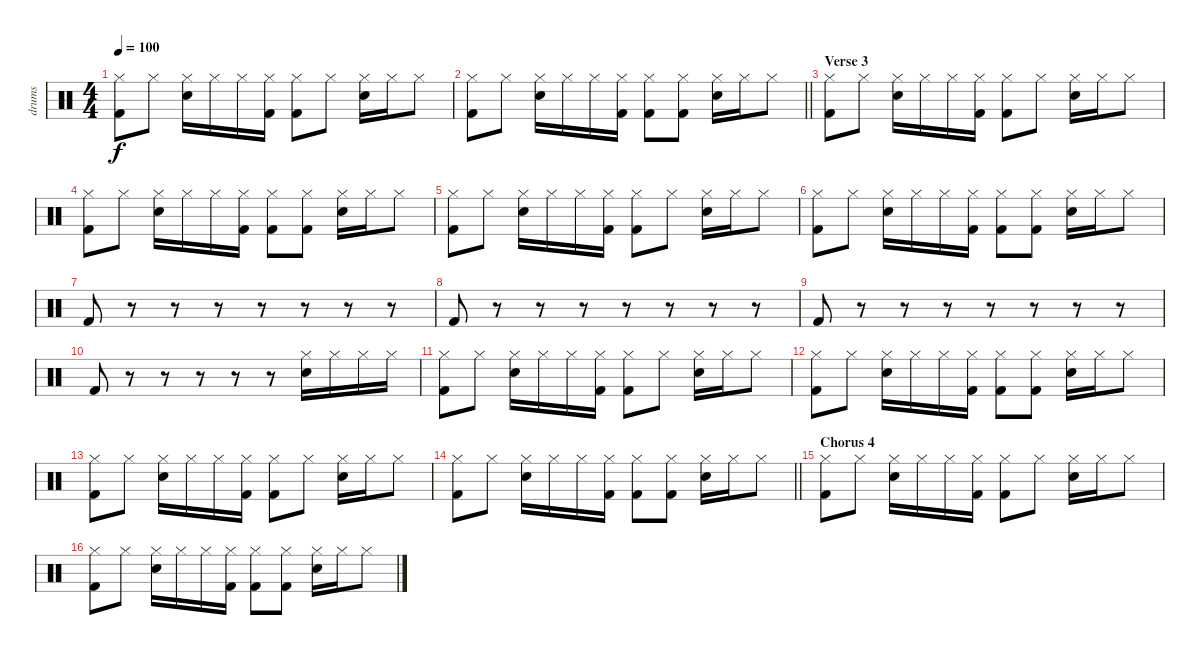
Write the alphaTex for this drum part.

\track ("drums" "drums") {instrument percussion}
\staff {score}
\articulation defaults
\ts (4 4)
\tempo 100
\clef neutral
\ks c
("Hi-Hat (closed)" "Kick (hit) 2").8{dy f} "Hi-Hat (closed)".8 ("Electric Snare (hit)" "Hi-Hat (closed)").16 "Hi-Hat (closed)".16 "Hi-Hat (closed)".16 ("Hi-Hat (closed)" "Kick (hit) 2").16 ("Hi-Hat (closed)" "Kick (hit) 2").8 "Hi-Hat (closed)".8 ("Electric Snare (hit)" "Hi-Hat (closed)").16 "Hi-Hat (closed)".16 "Hi-Hat (closed)".8 |
\barLineRight lightlight
("Hi-Hat (closed)" "Kick (hit) 2").8 "Hi-Hat (closed)".8 ("Electric Snare (hit)" "Hi-Hat (closed)").16 "Hi-Hat (closed)".16 "Hi-Hat (closed)".16 ("Hi-Hat (closed)" "Kick (hit) 2").16 ("Hi-Hat (closed)" "Kick (hit) 2").8 ("Hi-Hat (closed)" "Kick (hit) 2").8 ("Electric Snare (hit)" "Hi-Hat (closed)").16 "Hi-Hat (closed)".16 "Hi-Hat (closed)".8 |
\section ("" "Verse 3")
("Hi-Hat (closed)" "Kick (hit) 2").8 "Hi-Hat (closed)".8 ("Electric Snare (hit)" "Hi-Hat (closed)").16 "Hi-Hat (closed)".16 "Hi-Hat (closed)".16 ("Hi-Hat (closed)" "Kick (hit) 2").16 ("Hi-Hat (closed)" "Kick (hit) 2").8 "Hi-Hat (closed)".8 ("Electric Snare (hit)" "Hi-Hat (closed)").16 "Hi-Hat (closed)".16 "Hi-Hat (closed)".8 |
("Hi-Hat (closed)" "Kick (hit) 2").8 "Hi-Hat (closed)".8 ("Electric Snare (hit)" "Hi-Hat (closed)").16 "Hi-Hat (closed)".16 "Hi-Hat (closed)".16 ("Hi-Hat (closed)" "Kick (hit) 2").16 ("Hi-Hat (closed)" "Kick (hit) 2").8 ("Hi-Hat (closed)" "Kick (hit) 2").8 ("Electric Snare (hit)" "Hi-Hat (closed)").16 "Hi-Hat (closed)".16 "Hi-Hat (closed)".8 |
("Hi-Hat (closed)" "Kick (hit) 2").8 "Hi-Hat (closed)".8 ("Electric Snare (hit)" "Hi-Hat (closed)").16 "Hi-Hat (closed)".16 "Hi-Hat (closed)".16 ("Hi-Hat (closed)" "Kick (hit) 2").16 ("Hi-Hat (closed)" "Kick (hit) 2").8 "Hi-Hat (closed)".8 ("Electric Snare (hit)" "Hi-Hat (closed)").16 "Hi-Hat (closed)".16 "Hi-Hat (closed)".8 |
("Hi-Hat (closed)" "Kick (hit) 2").8 "Hi-Hat (closed)".8 ("Electric Snare (hit)" "Hi-Hat (closed)").16 "Hi-Hat (closed)".16 "Hi-Hat (closed)".16 ("Hi-Hat (closed)" "Kick (hit) 2").16 ("Hi-Hat (closed)" "Kick (hit) 2").8 ("Hi-Hat (closed)" "Kick (hit) 2").8 ("Electric Snare (hit)" "Hi-Hat (closed)").16 "Hi-Hat (closed)".16 "Hi-Hat (closed)".8 |
"Kick (hit) 2".8 r.8 r.8 r.8 r.8 r.8 r.8 r.8 |
"Kick (hit) 2".8 r.8 r.8 r.8 r.8 r.8 r.8 r.8 |
"Kick (hit) 2".8 r.8 r.8 r.8 r.8 r.8 r.8 r.8 |
"Kick (hit) 2".8 r.8 r.8 r.8 r.8 r.8 ("Electric Snare (hit)" "Hi-Hat (closed)").16 "Hi-Hat (closed)".16 "Hi-Hat (closed)".16 "Hi-Hat (closed)".16 |
("Hi-Hat (closed)" "Kick (hit) 2").8 "Hi-Hat (closed)".8 ("Electric Snare (hit)" "Hi-Hat (closed)").16 "Hi-Hat (closed)".16 "Hi-Hat (closed)".16 ("Hi-Hat (closed)" "Kick (hit) 2").16 ("Hi-Hat (closed)" "Kick (hit) 2").8 "Hi-Hat (closed)".8 ("Electric Snare (hit)" "Hi-Hat (closed)").16 "Hi-Hat (closed)".16 "Hi-Hat (closed)".8 |
("Hi-Hat (closed)" "Kick (hit) 2").8 "Hi-Hat (closed)".8 ("Electric Snare (hit)" "Hi-Hat (closed)").16 "Hi-Hat (closed)".16 "Hi-Hat (closed)".16 ("Hi-Hat (closed)" "Kick (hit) 2").16 ("Hi-Hat (closed)" "Kick (hit) 2").8 ("Hi-Hat (closed)" "Kick (hit) 2").8 ("Electric Snare (hit)" "Hi-Hat (closed)").16 "Hi-Hat (closed)".16 "Hi-Hat (closed)".8 |
("Hi-Hat (closed)" "Kick (hit) 2").8 "Hi-Hat (closed)".8 ("Electric Snare (hit)" "Hi-Hat (closed)").16 "Hi-Hat (closed)".16 "Hi-Hat (closed)".16 ("Hi-Hat (closed)" "Kick (hit) 2").16 ("Hi-Hat (closed)" "Kick (hit) 2").8 "Hi-Hat (closed)".8 ("Electric Snare (hit)" "Hi-Hat (closed)").16 "Hi-Hat (closed)".16 "Hi-Hat (closed)".8 |
\barLineRight lightlight
("Hi-Hat (closed)" "Kick (hit) 2").8 "Hi-Hat (closed)".8 ("Electric Snare (hit)" "Hi-Hat (closed)").16 "Hi-Hat (closed)".16 "Hi-Hat (closed)".16 ("Hi-Hat (closed)" "Kick (hit) 2").16 ("Hi-Hat (closed)" "Kick (hit) 2").8 ("Hi-Hat (closed)" "Kick (hit) 2").8 ("Electric Snare (hit)" "Hi-Hat (closed)").16 "Hi-Hat (closed)".16 "Hi-Hat (closed)".8 |
\section ("" "Chorus 4")
("Hi-Hat (closed)" "Kick (hit) 2").8 "Hi-Hat (closed)".8 ("Electric Snare (hit)" "Hi-Hat (closed)").16 "Hi-Hat (closed)".16 "Hi-Hat (closed)".16 ("Hi-Hat (closed)" "Kick (hit) 2").16 ("Hi-Hat (closed)" "Kick (hit) 2").8 "Hi-Hat (closed)".8 ("Electric Snare (hit)" "Hi-Hat (closed)").16 "Hi-Hat (closed)".16 "Hi-Hat (closed)".8 |
("Hi-Hat (closed)" "Kick (hit) 2").8 "Hi-Hat (closed)".8 ("Electric Snare (hit)" "Hi-Hat (closed)").16 "Hi-Hat (closed)".16 "Hi-Hat (closed)".16 ("Hi-Hat (closed)" "Kick (hit) 2").16 ("Hi-Hat (closed)" "Kick (hit) 2").8 ("Hi-Hat (closed)" "Kick (hit) 2").8 ("Electric Snare (hit)" "Hi-Hat (closed)").16 "Hi-Hat (closed)".16 "Hi-Hat (closed)".8
